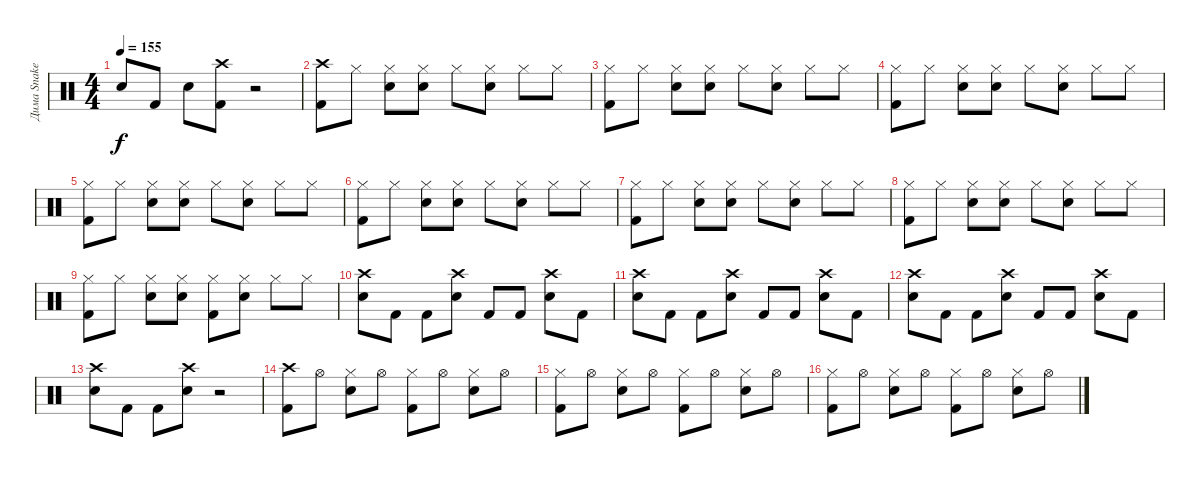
\track ("Дима Snake Хакимов" "Дима Snake") {instrument percussion}
\staff {score}
\articulation defaults
\ts (4 4)
\tempo 155
\clef neutral
\ks c "Snare (hit) 2".8{dy f} "Kick (hit) 2".8 "Snare (hit) 2".8
("Crash high (hit)" "Kick (hit) 2").8 r.2 |
("Crash high (hit)" "Kick (hit) 2").8 "Hi-Hat (closed)".8 ("Hi-Hat (closed)" "Snare (hit) 2").8 ("Hi-Hat (closed)" "Snare (hit) 2").8 "Hi-Hat (closed)".8 ("Hi-Hat (closed)" "Snare (hit) 2").8 "Hi-Hat (closed)".8 "Hi-Hat (closed)".8 |
("Hi-Hat (closed)" "Kick (hit) 2").8 "Hi-Hat (closed)".8 ("Hi-Hat (closed)" "Snare (hit) 2").8 ("Hi-Hat (closed)" "Snare (hit) 2").8 "Hi-Hat (closed)".8 ("Hi-Hat (closed)" "Snare (hit) 2").8 "Hi-Hat (closed)".8 "Hi-Hat (closed)".8 |
("Hi-Hat (closed)" "Kick (hit) 2").8 "Hi-Hat (closed)".8 ("Hi-Hat (closed)" "Snare (hit) 2").8 ("Hi-Hat (closed)" "Snare (hit) 2").8 "Hi-Hat (closed)".8 ("Hi-Hat (closed)" "Snare (hit) 2").8 "Hi-Hat (closed)".8 "Hi-Hat (closed)".8 |
("Hi-Hat (closed)" "Kick (hit) 2").8 "Hi-Hat (closed)".8 ("Hi-Hat (closed)" "Snare (hit) 2").8 ("Hi-Hat (closed)" "Snare (hit) 2").8 "Hi-Hat (closed)".8 ("Hi-Hat (closed)" "Snare (hit) 2").8 "Hi-Hat (closed)".8 "Hi-Hat (closed)".8 |
("Hi-Hat (closed)" "Kick (hit) 2").8 "Hi-Hat (closed)".8 ("Hi-Hat (closed)" "Snare (hit) 2").8 ("Hi-Hat (closed)" "Snare (hit) 2").8 "Hi-Hat (closed)".8 ("Hi-Hat (closed)" "Snare (hit) 2").8 "Hi-Hat (closed)".8 "Hi-Hat (closed)".8 |
("Hi-Hat (closed)" "Kick (hit) 2").8 "Hi-Hat (closed)".8 ("Hi-Hat (closed)" "Snare (hit) 2").8 ("Hi-Hat (closed)" "Snare (hit) 2").8 "Hi-Hat (closed)".8 ("Hi-Hat (closed)" "Snare (hit) 2").8 "Hi-Hat (closed)".8 "Hi-Hat (closed)".8 |
("Hi-Hat (closed)" "Kick (hit) 2").8 "Hi-Hat (closed)".8 ("Hi-Hat (closed)" "Snare (hit) 2").8 ("Hi-Hat (closed)" "Snare (hit) 2").8 "Hi-Hat (closed)".8 ("Hi-Hat (closed)" "Snare (hit) 2").8 "Hi-Hat (closed)".8 "Hi-Hat (closed)".8 |
("Hi-Hat (closed)" "Kick (hit) 2").8 "Hi-Hat (closed)".8 ("Hi-Hat (closed)" "Snare (hit) 2").8 ("Hi-Hat (closed)" "Snare (hit) 2").8 ("Hi-Hat (closed)" "Kick (hit) 2").8 ("Hi-Hat (closed)" "Snare (hit) 2").8 "Hi-Hat (closed)".8 "Hi-Hat (closed)".8 |
("Crash high (hit)" "Snare (hit) 2").8 "Kick (hit) 2".8 "Kick (hit) 2".8 ("Crash high (hit)" "Snare (hit) 2").8 "Kick (hit) 2".8 "Kick (hit) 2".8 ("Crash high (hit)" "Snare (hit) 2").8 "Kick (hit) 2".8 |
("Crash high (hit)" "Snare (hit) 2").8 "Kick (hit) 2".8 "Kick (hit) 2".8 ("Crash high (hit)" "Snare (hit) 2").8 "Kick (hit) 2".8 "Kick (hit) 2".8 ("Crash high (hit)" "Snare (hit) 2").8 "Kick (hit) 2".8 |
("Crash high (hit)" "Snare (hit) 2").8 "Kick (hit) 2".8 "Kick (hit) 2".8 ("Crash high (hit)" "Snare (hit) 2").8 "Kick (hit) 2".8 "Kick (hit) 2".8 ("Crash high (hit)" "Snare (hit) 2").8 "Kick (hit) 2".8 |
("Crash high (hit)" "Snare (hit) 2").8 "Kick (hit) 2".8 "Kick (hit) 2".8 ("Crash high (hit)" "Snare (hit) 2").8 r.2 |
("Crash high (hit)" "Kick (hit) 2").8 "Hi-Hat (open)".8 ("Hi-Hat (closed)" "Snare (hit) 2").8 "Hi-Hat (open)".8 ("Hi-Hat (closed)" "Kick (hit) 2").8 "Hi-Hat (open)".8 ("Hi-Hat (closed)" "Snare (hit) 2").8 "Hi-Hat (open)".8 |
("Hi-Hat (closed)" "Kick (hit) 2").8 "Hi-Hat (open)".8 ("Hi-Hat (closed)" "Snare (hit) 2").8 "Hi-Hat (open)".8 ("Hi-Hat (closed)" "Kick (hit) 2").8 "Hi-Hat (open)".8 ("Hi-Hat (closed)" "Snare (hit) 2").8 "Hi-Hat (open)".8 |
("Hi-Hat (closed)" "Kick (hit) 2").8 "Hi-Hat (open)".8 ("Hi-Hat (closed)" "Snare (hit) 2").8 "Hi-Hat (open)".8 ("Hi-Hat (closed)" "Kick (hit) 2").8 "Hi-Hat (open)".8 ("Hi-Hat (closed)" "Snare (hit) 2").8 "Hi-Hat (open)".8
